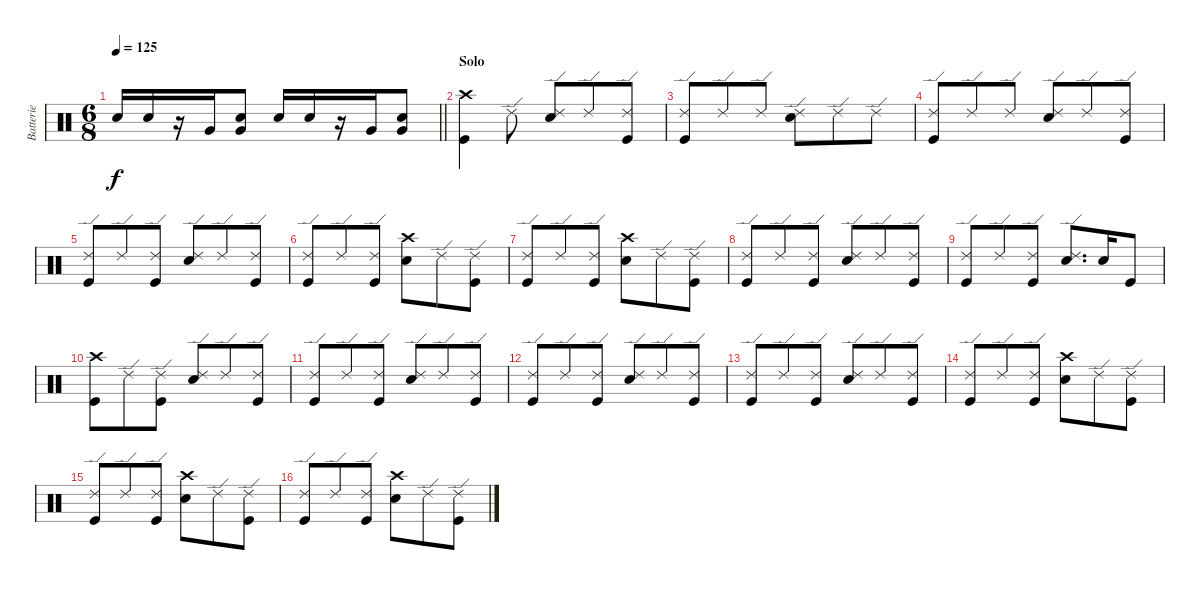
\track ("Batterie" "Batterie") {instrument percussion}
\staff {score}
\articulation defaults
\ts (6 8)
\tempo 125
\clef neutral
\barLineRight lightlight
\ks c "Snare (hit) 2".16{dy f} "Snare (hit) 2".16
r.16 "Very Low Tom (hit)".16 ("Snare (hit) 2" "Very Low Tom (hit)").8 "Snare (hit) 2".16 "Snare (hit) 2".16 r.16 "Very Low Tom (hit)".16 ("Snare (hit) 2" "Very Low Tom (hit)").8 |
\section ("" "Solo")
("Crash high (hit)" "Kick (hit)").4 "Ride (edge) 2".8 ("Ride (edge) 2" "Snare (hit) 2").8 "Ride (edge) 2".8 ("Ride (edge) 2" "Kick (hit)").8 |
("Ride (edge) 2" "Kick (hit)").8 "Ride (edge) 2".8 "Ride (edge) 2".8 ("Ride (edge) 2" "Snare (hit) 2").8 "Ride (edge) 2".8 "Ride (edge) 2".8 |
("Ride (edge) 2" "Kick (hit)").8 "Ride (edge) 2".8 "Ride (edge) 2".8 ("Ride (edge) 2" "Snare (hit) 2").8 "Ride (edge) 2".8 ("Ride (edge) 2" "Kick (hit)").8 |
("Ride (edge) 2" "Kick (hit)").8 "Ride (edge) 2".8 ("Ride (edge) 2" "Kick (hit)").8 ("Ride (edge) 2" "Snare (hit) 2").8 "Ride (edge) 2".8 ("Ride (edge) 2" "Kick (hit)").8 |
("Ride (edge) 2" "Kick (hit)").8 "Ride (edge) 2".8 ("Ride (edge) 2" "Kick (hit)").8 ("Crash high (hit)" "Snare (hit) 2").8 "Ride (edge) 2".8 ("Ride (edge) 2" "Kick (hit)").8 |
("Ride (edge) 2" "Kick (hit)").8 "Ride (edge) 2".8 ("Ride (edge) 2" "Kick (hit)").8 ("Crash high (hit)" "Snare (hit) 2").8 "Ride (edge) 2".8 ("Ride (edge) 2" "Kick (hit)").8 |
("Ride (edge) 2" "Kick (hit)").8 "Ride (edge) 2".8 ("Ride (edge) 2" "Kick (hit)").8 ("Ride (edge) 2" "Snare (hit) 2").8 "Ride (edge) 2".8 ("Ride (edge) 2" "Kick (hit)").8 |
("Ride (edge) 2" "Kick (hit)").8 "Ride (edge) 2".8 ("Ride (edge) 2" "Kick (hit)").8 ("Ride (edge) 2" "Snare (hit) 2").8{d} "Snare (hit) 2".16 "Kick (hit)".8 |
("Crash high (hit)" "Kick (hit)").8 "Ride (edge) 2".8 ("Ride (edge) 2" "Kick (hit)").8 ("Ride (edge) 2" "Snare (hit) 2").8 "Ride (edge) 2".8 ("Ride (edge) 2" "Kick (hit)").8 |
("Ride (edge) 2" "Kick (hit)").8 "Ride (edge) 2".8 ("Ride (edge) 2" "Kick (hit)").8 ("Ride (edge) 2" "Snare (hit) 2").8 "Ride (edge) 2".8 ("Ride (edge) 2" "Kick (hit)").8 |
("Ride (edge) 2" "Kick (hit)").8 "Ride (edge) 2".8 ("Ride (edge) 2" "Kick (hit)").8 ("Ride (edge) 2" "Snare (hit) 2").8 "Ride (edge) 2".8 ("Ride (edge) 2" "Kick (hit)").8 |
("Ride (edge) 2" "Kick (hit)").8 "Ride (edge) 2".8 ("Ride (edge) 2" "Kick (hit)").8 ("Ride (edge) 2" "Snare (hit) 2").8 "Ride (edge) 2".8 ("Ride (edge) 2" "Kick (hit)").8 |
("Ride (edge) 2" "Kick (hit)").8 "Ride (edge) 2".8 ("Ride (edge) 2" "Kick (hit)").8 ("Crash high (hit)" "Snare (hit) 2").8 "Ride (edge) 2".8 ("Ride (edge) 2" "Kick (hit)").8 |
("Ride (edge) 2" "Kick (hit)").8 "Ride (edge) 2".8 ("Ride (edge) 2" "Kick (hit)").8 ("Crash high (hit)" "Snare (hit) 2").8 "Ride (edge) 2".8 ("Ride (edge) 2" "Kick (hit)").8 |
("Ride (edge) 2" "Kick (hit)").8 "Ride (edge) 2".8 ("Ride (edge) 2" "Kick (hit)").8 ("Crash high (hit)" "Snare (hit) 2").8 "Ride (edge) 2".8 ("Ride (edge) 2" "Kick (hit)").8
